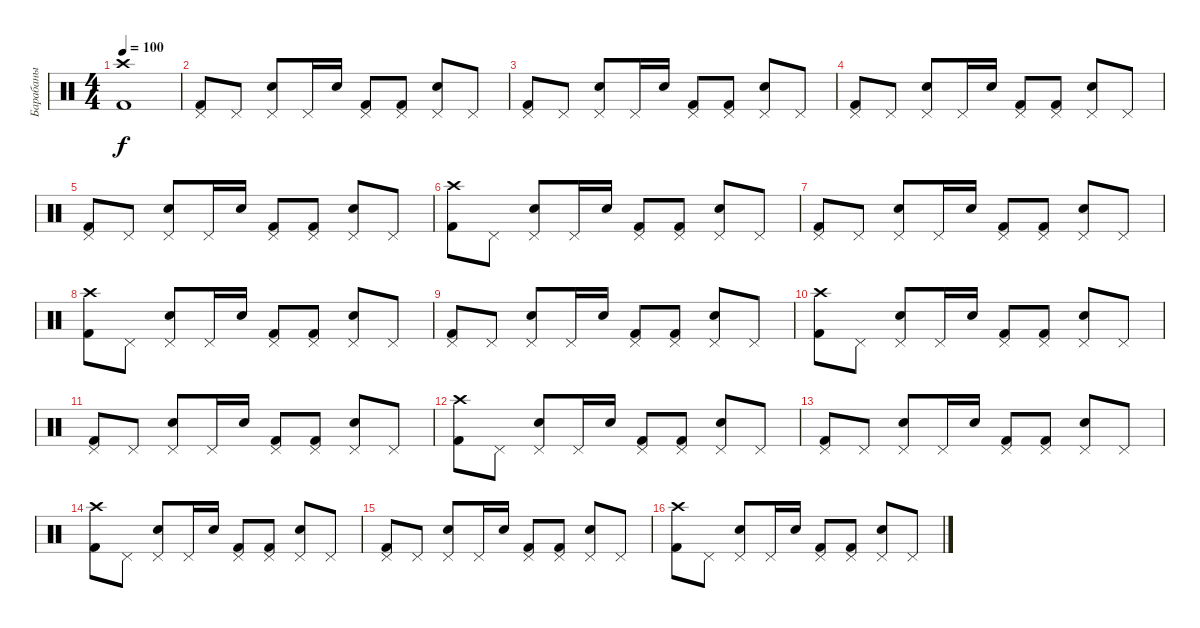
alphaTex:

\track ("Барабаны" "Барабаны") {instrument percussion}
\staff {score}
\articulation defaults
\ts (4 4)
\tempo 100
\clef neutral
\ks c
("Crash high (hit)" "Kick (hit) 2").1{dy f} |
("Pedal Hi-Hat (hit)" "Kick (hit) 2").8 "Pedal Hi-Hat (hit)".8 ("Pedal Hi-Hat (hit)" "Electric Snare (hit)").8 "Pedal Hi-Hat (hit)".16 "Electric Snare (hit)".16 ("Pedal Hi-Hat (hit)" "Kick (hit) 2").8 ("Pedal Hi-Hat (hit)" "Kick (hit) 2").8 ("Pedal Hi-Hat (hit)" "Electric Snare (hit)").8 "Pedal Hi-Hat (hit)".8 |
("Pedal Hi-Hat (hit)" "Kick (hit) 2").8 "Pedal Hi-Hat (hit)".8 ("Pedal Hi-Hat (hit)" "Electric Snare (hit)").8 "Pedal Hi-Hat (hit)".16 "Electric Snare (hit)".16 ("Pedal Hi-Hat (hit)" "Kick (hit) 2").8 ("Pedal Hi-Hat (hit)" "Kick (hit) 2").8 ("Pedal Hi-Hat (hit)" "Electric Snare (hit)").8 "Pedal Hi-Hat (hit)".8 |
("Pedal Hi-Hat (hit)" "Kick (hit) 2").8 "Pedal Hi-Hat (hit)".8 ("Pedal Hi-Hat (hit)" "Electric Snare (hit)").8 "Pedal Hi-Hat (hit)".16 "Electric Snare (hit)".16 ("Pedal Hi-Hat (hit)" "Kick (hit) 2").8 ("Pedal Hi-Hat (hit)" "Kick (hit) 2").8 ("Pedal Hi-Hat (hit)" "Electric Snare (hit)").8 "Pedal Hi-Hat (hit)".8 |
("Pedal Hi-Hat (hit)" "Kick (hit) 2").8 "Pedal Hi-Hat (hit)".8 ("Pedal Hi-Hat (hit)" "Electric Snare (hit)").8 "Pedal Hi-Hat (hit)".16 "Electric Snare (hit)".16 ("Pedal Hi-Hat (hit)" "Kick (hit) 2").8 ("Pedal Hi-Hat (hit)" "Kick (hit) 2").8 ("Pedal Hi-Hat (hit)" "Electric Snare (hit)").8 "Pedal Hi-Hat (hit)".8 |
("Crash high (hit)" "Kick (hit) 2").8 "Pedal Hi-Hat (hit)".8 ("Pedal Hi-Hat (hit)" "Electric Snare (hit)").8 "Pedal Hi-Hat (hit)".16 "Electric Snare (hit)".16 ("Pedal Hi-Hat (hit)" "Kick (hit) 2").8 ("Pedal Hi-Hat (hit)" "Kick (hit) 2").8 ("Pedal Hi-Hat (hit)" "Electric Snare (hit)").8 "Pedal Hi-Hat (hit)".8 |
("Pedal Hi-Hat (hit)" "Kick (hit) 2").8 "Pedal Hi-Hat (hit)".8 ("Pedal Hi-Hat (hit)" "Electric Snare (hit)").8 "Pedal Hi-Hat (hit)".16 "Electric Snare (hit)".16 ("Pedal Hi-Hat (hit)" "Kick (hit) 2").8 ("Pedal Hi-Hat (hit)" "Kick (hit) 2").8 ("Pedal Hi-Hat (hit)" "Electric Snare (hit)").8 "Pedal Hi-Hat (hit)".8 |
("Crash high (hit)" "Kick (hit) 2").8 "Pedal Hi-Hat (hit)".8 ("Pedal Hi-Hat (hit)" "Electric Snare (hit)").8 "Pedal Hi-Hat (hit)".16 "Electric Snare (hit)".16 ("Pedal Hi-Hat (hit)" "Kick (hit) 2").8 ("Pedal Hi-Hat (hit)" "Kick (hit) 2").8 ("Pedal Hi-Hat (hit)" "Electric Snare (hit)").8 "Pedal Hi-Hat (hit)".8 |
("Pedal Hi-Hat (hit)" "Kick (hit) 2").8 "Pedal Hi-Hat (hit)".8 ("Pedal Hi-Hat (hit)" "Electric Snare (hit)").8 "Pedal Hi-Hat (hit)".16 "Electric Snare (hit)".16 ("Pedal Hi-Hat (hit)" "Kick (hit) 2").8 ("Pedal Hi-Hat (hit)" "Kick (hit) 2").8 ("Pedal Hi-Hat (hit)" "Electric Snare (hit)").8 "Pedal Hi-Hat (hit)".8 |
("Crash high (hit)" "Kick (hit) 2").8 "Pedal Hi-Hat (hit)".8 ("Pedal Hi-Hat (hit)" "Electric Snare (hit)").8 "Pedal Hi-Hat (hit)".16 "Electric Snare (hit)".16 ("Pedal Hi-Hat (hit)" "Kick (hit) 2").8 ("Pedal Hi-Hat (hit)" "Kick (hit) 2").8 ("Pedal Hi-Hat (hit)" "Electric Snare (hit)").8 "Pedal Hi-Hat (hit)".8 |
("Pedal Hi-Hat (hit)" "Kick (hit) 2").8 "Pedal Hi-Hat (hit)".8 ("Pedal Hi-Hat (hit)" "Electric Snare (hit)").8 "Pedal Hi-Hat (hit)".16 "Electric Snare (hit)".16 ("Pedal Hi-Hat (hit)" "Kick (hit) 2").8 ("Pedal Hi-Hat (hit)" "Kick (hit) 2").8 ("Pedal Hi-Hat (hit)" "Electric Snare (hit)").8 "Pedal Hi-Hat (hit)".8 |
("Crash high (hit)" "Kick (hit) 2").8 "Pedal Hi-Hat (hit)".8 ("Pedal Hi-Hat (hit)" "Electric Snare (hit)").8 "Pedal Hi-Hat (hit)".16 "Electric Snare (hit)".16 ("Pedal Hi-Hat (hit)" "Kick (hit) 2").8 ("Pedal Hi-Hat (hit)" "Kick (hit) 2").8 ("Pedal Hi-Hat (hit)" "Electric Snare (hit)").8 "Pedal Hi-Hat (hit)".8 |
("Pedal Hi-Hat (hit)" "Kick (hit) 2").8 "Pedal Hi-Hat (hit)".8 ("Pedal Hi-Hat (hit)" "Electric Snare (hit)").8 "Pedal Hi-Hat (hit)".16 "Electric Snare (hit)".16 ("Pedal Hi-Hat (hit)" "Kick (hit) 2").8 ("Pedal Hi-Hat (hit)" "Kick (hit) 2").8 ("Pedal Hi-Hat (hit)" "Electric Snare (hit)").8 "Pedal Hi-Hat (hit)".8 |
("Crash high (hit)" "Kick (hit) 2").8 "Pedal Hi-Hat (hit)".8 ("Pedal Hi-Hat (hit)" "Electric Snare (hit)").8 "Pedal Hi-Hat (hit)".16 "Electric Snare (hit)".16 ("Pedal Hi-Hat (hit)" "Kick (hit) 2").8 ("Pedal Hi-Hat (hit)" "Kick (hit) 2").8 ("Pedal Hi-Hat (hit)" "Electric Snare (hit)").8 "Pedal Hi-Hat (hit)".8 |
("Pedal Hi-Hat (hit)" "Kick (hit) 2").8 "Pedal Hi-Hat (hit)".8 ("Pedal Hi-Hat (hit)" "Electric Snare (hit)").8 "Pedal Hi-Hat (hit)".16 "Electric Snare (hit)".16 ("Pedal Hi-Hat (hit)" "Kick (hit) 2").8 ("Pedal Hi-Hat (hit)" "Kick (hit) 2").8 ("Pedal Hi-Hat (hit)" "Electric Snare (hit)").8 "Pedal Hi-Hat (hit)".8 |
("Crash high (hit)" "Kick (hit) 2").8 "Pedal Hi-Hat (hit)".8 ("Pedal Hi-Hat (hit)" "Electric Snare (hit)").8 "Pedal Hi-Hat (hit)".16 "Electric Snare (hit)".16 ("Pedal Hi-Hat (hit)" "Kick (hit) 2").8 ("Pedal Hi-Hat (hit)" "Kick (hit) 2").8 ("Pedal Hi-Hat (hit)" "Electric Snare (hit)").8 "Pedal Hi-Hat (hit)".8
